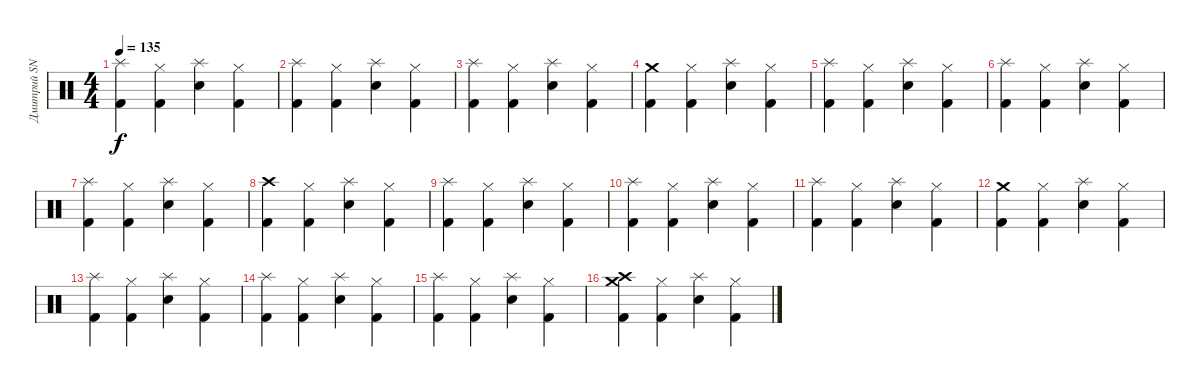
\track ("Дмитрий SNAKE Хакимов" "Дмитрий SN") {instrument percussion}
\staff {score}
\articulation defaults
\ts (4 4)
\tempo 135
\clef neutral
\ks c
("Splash (hit)" "Kick (hit) 2").4{dy f} ("Hi-Hat (closed)" "Kick (hit) 2").4 ("Splash (hit)" "Snare (hit) 2").4 ("Hi-Hat (closed)" "Kick (hit) 2").4 |
("Splash (hit)" "Kick (hit) 2").4 ("Hi-Hat (closed)" "Kick (hit) 2").4 ("Splash (hit)" "Snare (hit) 2").4 ("Hi-Hat (closed)" "Kick (hit) 2").4 |
("Splash (hit)" "Kick (hit) 2").4 ("Hi-Hat (closed)" "Kick (hit) 2").4 ("Splash (hit)" "Snare (hit) 2").4 ("Hi-Hat (closed)" "Kick (hit) 2").4 |
("Crash medium (hit)" "Kick (hit) 2").4 ("Hi-Hat (closed)" "Kick (hit) 2").4 ("Splash (hit)" "Snare (hit) 2").4 ("Hi-Hat (closed)" "Kick (hit) 2").4 |
("Splash (hit)" "Kick (hit) 2").4 ("Hi-Hat (closed)" "Kick (hit) 2").4 ("Splash (hit)" "Snare (hit) 2").4 ("Hi-Hat (closed)" "Kick (hit) 2").4 |
("Splash (hit)" "Kick (hit) 2").4 ("Hi-Hat (closed)" "Kick (hit) 2").4 ("Splash (hit)" "Snare (hit) 2").4 ("Hi-Hat (closed)" "Kick (hit) 2").4 |
("Splash (hit)" "Kick (hit) 2").4 ("Hi-Hat (closed)" "Kick (hit) 2").4 ("Splash (hit)" "Snare (hit) 2").4 ("Hi-Hat (closed)" "Kick (hit) 2").4 |
("Crash high (hit)" "Kick (hit) 2").4 ("Hi-Hat (closed)" "Kick (hit) 2").4 ("Splash (hit)" "Snare (hit) 2").4 ("Hi-Hat (closed)" "Kick (hit) 2").4 |
("Splash (hit)" "Kick (hit) 2").4 ("Hi-Hat (closed)" "Kick (hit) 2").4 ("Splash (hit)" "Snare (hit) 2").4 ("Hi-Hat (closed)" "Kick (hit) 2").4 |
("Splash (hit)" "Kick (hit) 2").4 ("Hi-Hat (closed)" "Kick (hit) 2").4 ("Splash (hit)" "Snare (hit) 2").4 ("Hi-Hat (closed)" "Kick (hit) 2").4 |
("Splash (hit)" "Kick (hit) 2").4 ("Hi-Hat (closed)" "Kick (hit) 2").4 ("Splash (hit)" "Snare (hit) 2").4 ("Hi-Hat (closed)" "Kick (hit) 2").4 |
("Crash medium (hit)" "Kick (hit) 2").4 ("Hi-Hat (closed)" "Kick (hit) 2").4 ("Splash (hit)" "Snare (hit) 2").4 ("Hi-Hat (closed)" "Kick (hit) 2").4 |
("Splash (hit)" "Kick (hit) 2").4 ("Hi-Hat (closed)" "Kick (hit) 2").4 ("Splash (hit)" "Snare (hit) 2").4 ("Hi-Hat (closed)" "Kick (hit) 2").4 |
("Splash (hit)" "Kick (hit) 2").4 ("Hi-Hat (closed)" "Kick (hit) 2").4 ("Splash (hit)" "Snare (hit) 2").4 ("Hi-Hat (closed)" "Kick (hit) 2").4 |
("Splash (hit)" "Kick (hit) 2").4 ("Hi-Hat (closed)" "Kick (hit) 2").4 ("Splash (hit)" "Snare (hit) 2").4 ("Hi-Hat (closed)" "Kick (hit) 2").4 |
("Crash high (hit)" "Crash medium (hit)" "Kick (hit) 2").4 ("Hi-Hat (closed)" "Kick (hit) 2").4 ("Splash (hit)" "Snare (hit) 2").4 ("Hi-Hat (closed)" "Kick (hit) 2").4
